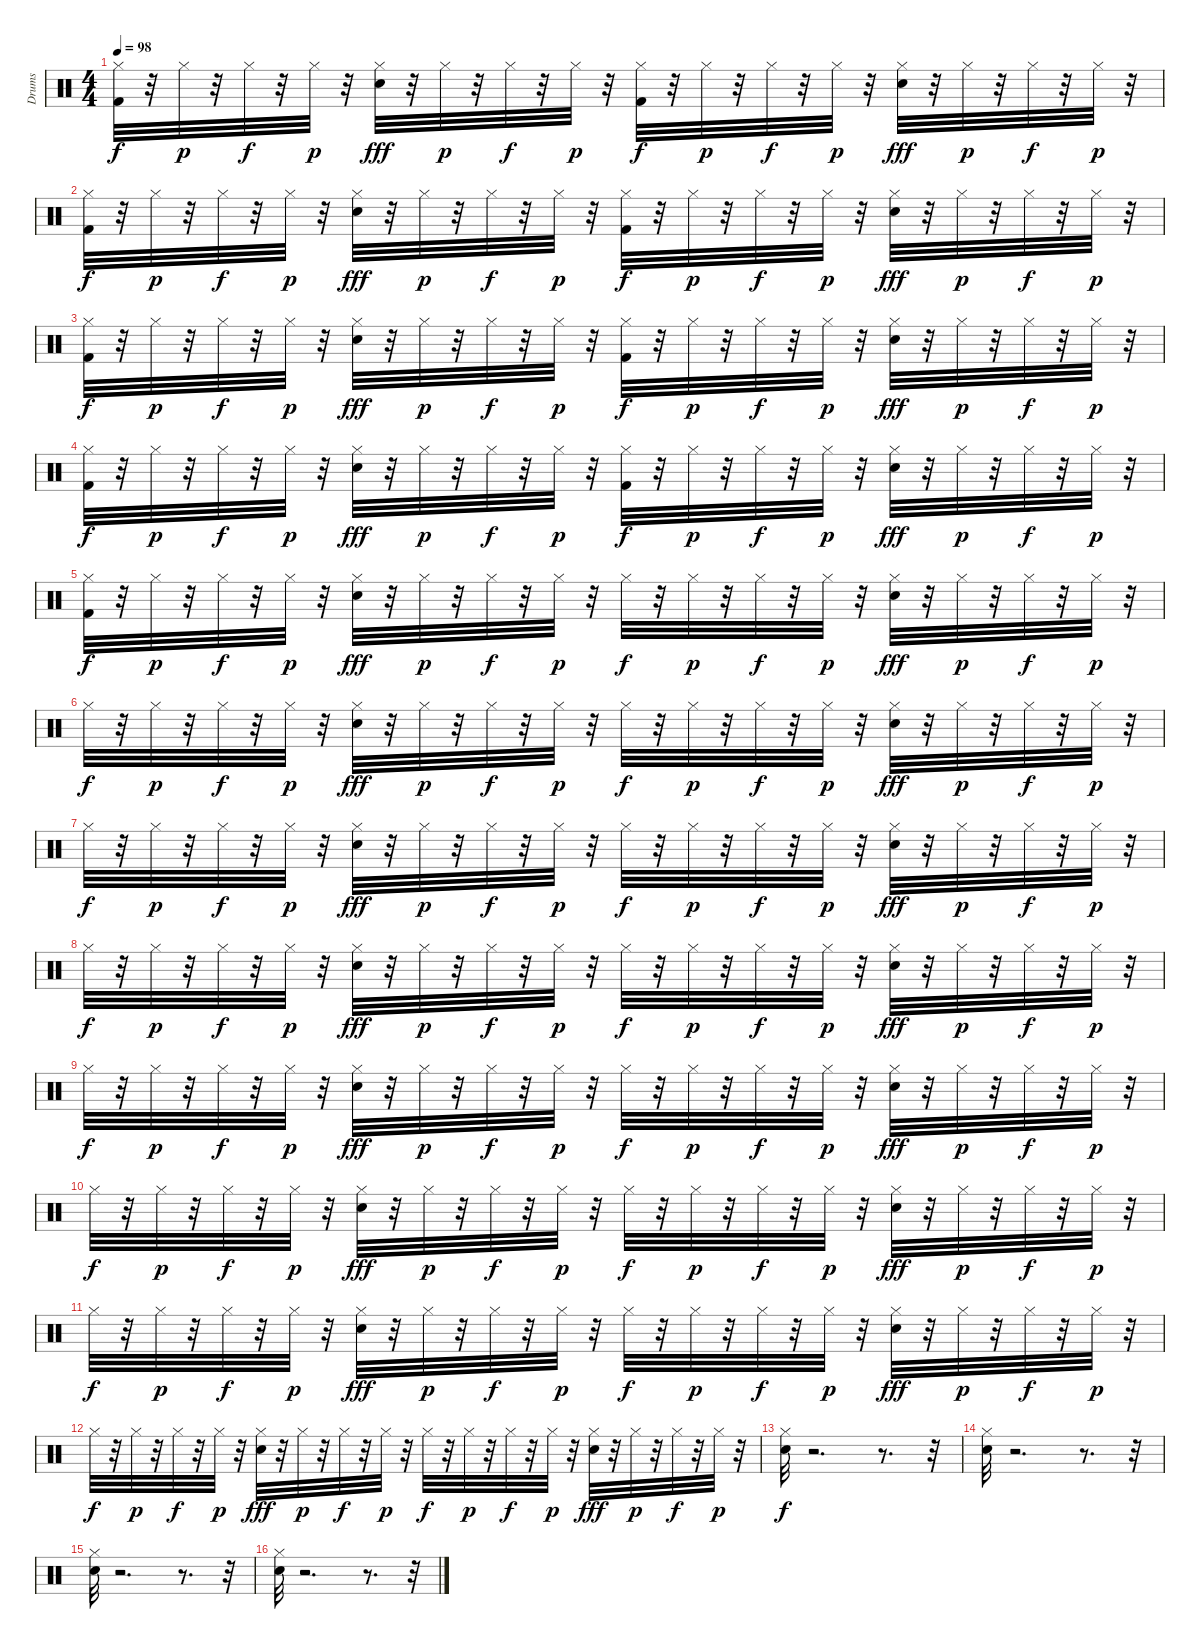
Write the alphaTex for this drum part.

\track ("Drums" "Drums") {instrument percussion}
\staff {score}
\articulation defaults
\ts (4 4)
\tempo 98
\clef neutral
\ks c
("Hi-Hat (closed)" "Kick (hit) 2").32{dy f} r.32 "Hi-Hat (closed)".32{dy p} r.32 "Hi-Hat (closed)".32{dy f} r.32 "Hi-Hat (closed)".32{dy p} r.32 ("Hi-Hat (closed)" "Electric Snare (hit)").32{dy fff} r.32 "Hi-Hat (closed)".32{dy p} r.32 "Hi-Hat (closed)".32{dy f} r.32 "Hi-Hat (closed)".32{dy p} r.32 ("Hi-Hat (closed)" "Kick (hit) 2").32{dy f} r.32 "Hi-Hat (closed)".32{dy p} r.32 "Hi-Hat (closed)".32{dy f} r.32 "Hi-Hat (closed)".32{dy p} r.32 ("Hi-Hat (closed)" "Electric Snare (hit)").32{dy fff} r.32 "Hi-Hat (closed)".32{dy p} r.32 "Hi-Hat (closed)".32{dy f} r.32 "Hi-Hat (closed)".32{dy p} r.32 |
("Hi-Hat (closed)" "Kick (hit) 2").32{dy f} r.32 "Hi-Hat (closed)".32{dy p} r.32 "Hi-Hat (closed)".32{dy f} r.32 "Hi-Hat (closed)".32{dy p} r.32 ("Hi-Hat (closed)" "Electric Snare (hit)").32{dy fff} r.32 "Hi-Hat (closed)".32{dy p} r.32 "Hi-Hat (closed)".32{dy f} r.32 "Hi-Hat (closed)".32{dy p} r.32 ("Hi-Hat (closed)" "Kick (hit) 2").32{dy f} r.32 "Hi-Hat (closed)".32{dy p} r.32 "Hi-Hat (closed)".32{dy f} r.32 "Hi-Hat (closed)".32{dy p} r.32 ("Hi-Hat (closed)" "Electric Snare (hit)").32{dy fff} r.32 "Hi-Hat (closed)".32{dy p} r.32 "Hi-Hat (closed)".32{dy f} r.32 "Hi-Hat (closed)".32{dy p} r.32 |
("Hi-Hat (closed)" "Kick (hit) 2").32{dy f} r.32 "Hi-Hat (closed)".32{dy p} r.32 "Hi-Hat (closed)".32{dy f} r.32 "Hi-Hat (closed)".32{dy p} r.32 ("Hi-Hat (closed)" "Electric Snare (hit)").32{dy fff} r.32 "Hi-Hat (closed)".32{dy p} r.32 "Hi-Hat (closed)".32{dy f} r.32 "Hi-Hat (closed)".32{dy p} r.32 ("Hi-Hat (closed)" "Kick (hit) 2").32{dy f} r.32 "Hi-Hat (closed)".32{dy p} r.32 "Hi-Hat (closed)".32{dy f} r.32 "Hi-Hat (closed)".32{dy p} r.32 ("Hi-Hat (closed)" "Electric Snare (hit)").32{dy fff} r.32 "Hi-Hat (closed)".32{dy p} r.32 "Hi-Hat (closed)".32{dy f} r.32 "Hi-Hat (closed)".32{dy p} r.32 |
("Hi-Hat (closed)" "Kick (hit) 2").32{dy f} r.32 "Hi-Hat (closed)".32{dy p} r.32 "Hi-Hat (closed)".32{dy f} r.32 "Hi-Hat (closed)".32{dy p} r.32 ("Hi-Hat (closed)" "Electric Snare (hit)").32{dy fff} r.32 "Hi-Hat (closed)".32{dy p} r.32 "Hi-Hat (closed)".32{dy f} r.32 "Hi-Hat (closed)".32{dy p} r.32 ("Hi-Hat (closed)" "Kick (hit) 2").32{dy f} r.32 "Hi-Hat (closed)".32{dy p} r.32 "Hi-Hat (closed)".32{dy f} r.32 "Hi-Hat (closed)".32{dy p} r.32 ("Hi-Hat (closed)" "Electric Snare (hit)").32{dy fff} r.32 "Hi-Hat (closed)".32{dy p} r.32 "Hi-Hat (closed)".32{dy f} r.32 "Hi-Hat (closed)".32{dy p} r.32 |
("Hi-Hat (closed)" "Kick (hit) 2").32{dy f} r.32 "Hi-Hat (closed)".32{dy p} r.32 "Hi-Hat (closed)".32{dy f} r.32 "Hi-Hat (closed)".32{dy p} r.32 ("Hi-Hat (closed)" "Electric Snare (hit)").32{dy fff} r.32 "Hi-Hat (closed)".32{dy p} r.32 "Hi-Hat (closed)".32{dy f} r.32 "Hi-Hat (closed)".32{dy p} r.32 "Hi-Hat (closed)".32{dy f} r.32 "Hi-Hat (closed)".32{dy p} r.32 "Hi-Hat (closed)".32{dy f} r.32 "Hi-Hat (closed)".32{dy p} r.32 ("Hi-Hat (closed)" "Electric Snare (hit)").32{dy fff} r.32 "Hi-Hat (closed)".32{dy p} r.32 "Hi-Hat (closed)".32{dy f} r.32 "Hi-Hat (closed)".32{dy p} r.32 |
"Hi-Hat (closed)".32{dy f} r.32 "Hi-Hat (closed)".32{dy p} r.32 "Hi-Hat (closed)".32{dy f} r.32 "Hi-Hat (closed)".32{dy p} r.32 ("Hi-Hat (closed)" "Electric Snare (hit)").32{dy fff} r.32 "Hi-Hat (closed)".32{dy p} r.32 "Hi-Hat (closed)".32{dy f} r.32 "Hi-Hat (closed)".32{dy p} r.32 "Hi-Hat (closed)".32{dy f} r.32 "Hi-Hat (closed)".32{dy p} r.32 "Hi-Hat (closed)".32{dy f} r.32 "Hi-Hat (closed)".32{dy p} r.32 ("Hi-Hat (closed)" "Electric Snare (hit)").32{dy fff} r.32 "Hi-Hat (closed)".32{dy p} r.32 "Hi-Hat (closed)".32{dy f} r.32 "Hi-Hat (closed)".32{dy p} r.32 |
"Hi-Hat (closed)".32{dy f} r.32 "Hi-Hat (closed)".32{dy p} r.32 "Hi-Hat (closed)".32{dy f} r.32 "Hi-Hat (closed)".32{dy p} r.32 ("Hi-Hat (closed)" "Electric Snare (hit)").32{dy fff} r.32 "Hi-Hat (closed)".32{dy p} r.32 "Hi-Hat (closed)".32{dy f} r.32 "Hi-Hat (closed)".32{dy p} r.32 "Hi-Hat (closed)".32{dy f} r.32 "Hi-Hat (closed)".32{dy p} r.32 "Hi-Hat (closed)".32{dy f} r.32 "Hi-Hat (closed)".32{dy p} r.32 ("Hi-Hat (closed)" "Electric Snare (hit)").32{dy fff} r.32 "Hi-Hat (closed)".32{dy p} r.32 "Hi-Hat (closed)".32{dy f} r.32 "Hi-Hat (closed)".32{dy p} r.32 |
"Hi-Hat (closed)".32{dy f} r.32 "Hi-Hat (closed)".32{dy p} r.32 "Hi-Hat (closed)".32{dy f} r.32 "Hi-Hat (closed)".32{dy p} r.32 ("Hi-Hat (closed)" "Electric Snare (hit)").32{dy fff} r.32 "Hi-Hat (closed)".32{dy p} r.32 "Hi-Hat (closed)".32{dy f} r.32 "Hi-Hat (closed)".32{dy p} r.32 "Hi-Hat (closed)".32{dy f} r.32 "Hi-Hat (closed)".32{dy p} r.32 "Hi-Hat (closed)".32{dy f} r.32 "Hi-Hat (closed)".32{dy p} r.32 ("Hi-Hat (closed)" "Electric Snare (hit)").32{dy fff} r.32 "Hi-Hat (closed)".32{dy p} r.32 "Hi-Hat (closed)".32{dy f} r.32 "Hi-Hat (closed)".32{dy p} r.32 |
"Hi-Hat (closed)".32{dy f} r.32 "Hi-Hat (closed)".32{dy p} r.32 "Hi-Hat (closed)".32{dy f} r.32 "Hi-Hat (closed)".32{dy p} r.32 ("Hi-Hat (closed)" "Electric Snare (hit)").32{dy fff} r.32 "Hi-Hat (closed)".32{dy p} r.32 "Hi-Hat (closed)".32{dy f} r.32 "Hi-Hat (closed)".32{dy p} r.32 "Hi-Hat (closed)".32{dy f} r.32 "Hi-Hat (closed)".32{dy p} r.32 "Hi-Hat (closed)".32{dy f} r.32 "Hi-Hat (closed)".32{dy p} r.32 ("Hi-Hat (closed)" "Electric Snare (hit)").32{dy fff} r.32 "Hi-Hat (closed)".32{dy p} r.32 "Hi-Hat (closed)".32{dy f} r.32 "Hi-Hat (closed)".32{dy p} r.32 |
"Hi-Hat (closed)".32{dy f} r.32 "Hi-Hat (closed)".32{dy p} r.32 "Hi-Hat (closed)".32{dy f} r.32 "Hi-Hat (closed)".32{dy p} r.32 ("Hi-Hat (closed)" "Electric Snare (hit)").32{dy fff} r.32 "Hi-Hat (closed)".32{dy p} r.32 "Hi-Hat (closed)".32{dy f} r.32 "Hi-Hat (closed)".32{dy p} r.32 "Hi-Hat (closed)".32{dy f} r.32 "Hi-Hat (closed)".32{dy p} r.32 "Hi-Hat (closed)".32{dy f} r.32 "Hi-Hat (closed)".32{dy p} r.32 ("Hi-Hat (closed)" "Electric Snare (hit)").32{dy fff} r.32 "Hi-Hat (closed)".32{dy p} r.32 "Hi-Hat (closed)".32{dy f} r.32 "Hi-Hat (closed)".32{dy p} r.32 |
"Hi-Hat (closed)".32{dy f} r.32 "Hi-Hat (closed)".32{dy p} r.32 "Hi-Hat (closed)".32{dy f} r.32 "Hi-Hat (closed)".32{dy p} r.32 ("Hi-Hat (closed)" "Electric Snare (hit)").32{dy fff} r.32 "Hi-Hat (closed)".32{dy p} r.32 "Hi-Hat (closed)".32{dy f} r.32 "Hi-Hat (closed)".32{dy p} r.32 "Hi-Hat (closed)".32{dy f} r.32 "Hi-Hat (closed)".32{dy p} r.32 "Hi-Hat (closed)".32{dy f} r.32 "Hi-Hat (closed)".32{dy p} r.32 ("Hi-Hat (closed)" "Electric Snare (hit)").32{dy fff} r.32 "Hi-Hat (closed)".32{dy p} r.32 "Hi-Hat (closed)".32{dy f} r.32 "Hi-Hat (closed)".32{dy p} r.32 |
"Hi-Hat (closed)".32{dy f} r.32 "Hi-Hat (closed)".32{dy p} r.32 "Hi-Hat (closed)".32{dy f} r.32 "Hi-Hat (closed)".32{dy p} r.32 ("Hi-Hat (closed)" "Electric Snare (hit)").32{dy fff} r.32 "Hi-Hat (closed)".32{dy p} r.32 "Hi-Hat (closed)".32{dy f} r.32 "Hi-Hat (closed)".32{dy p} r.32 "Hi-Hat (closed)".32{dy f} r.32 "Hi-Hat (closed)".32{dy p} r.32 "Hi-Hat (closed)".32{dy f} r.32 "Hi-Hat (closed)".32{dy p} r.32 ("Hi-Hat (closed)" "Electric Snare (hit)").32{dy fff} r.32 "Hi-Hat (closed)".32{dy p} r.32 "Hi-Hat (closed)".32{dy f} r.32 "Hi-Hat (closed)".32{dy p} r.32 |
("Electric Snare (hit)" "Hi-Hat (closed)").32{dy f} r.2{d} r.8{d} r.32 |
("Electric Snare (hit)" "Hi-Hat (closed)").32 r.2{d} r.8{d} r.32 |
("Electric Snare (hit)" "Hi-Hat (closed)").32 r.2{d} r.8{d} r.32 |
("Electric Snare (hit)" "Hi-Hat (closed)").32 r.2{d} r.8{d} r.32
